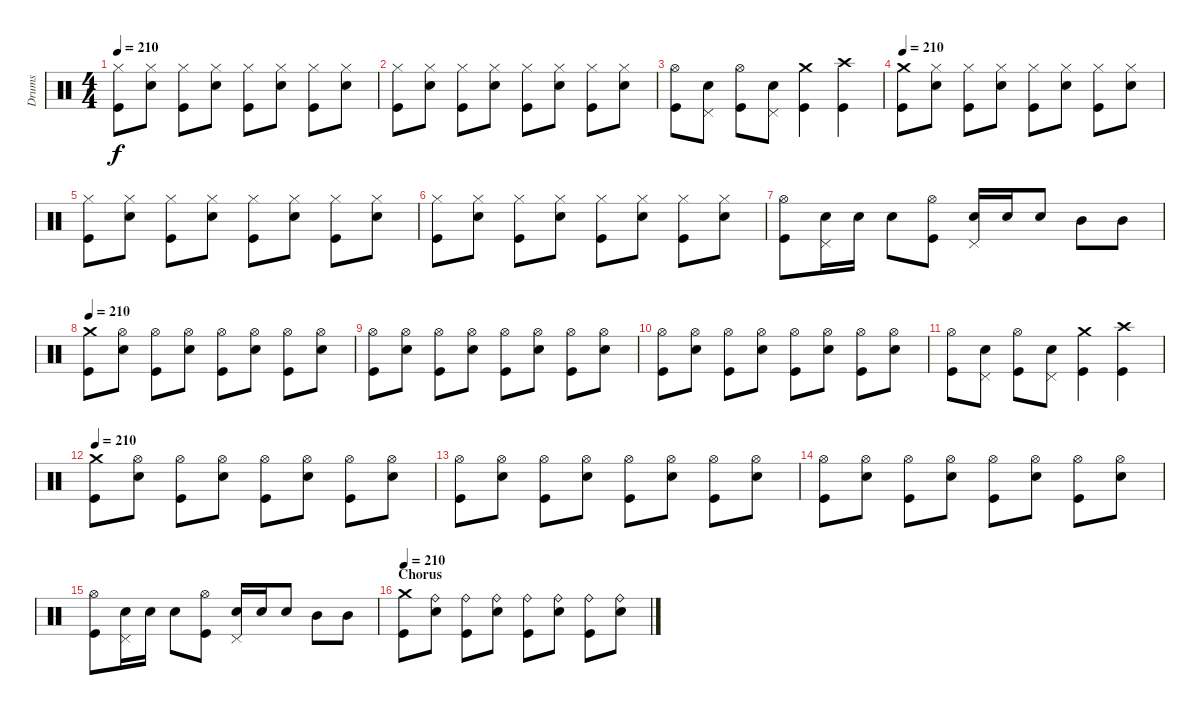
\track ("Drums" "Drums") {instrument percussion}
\staff {score}
\articulation defaults
\ts (4 4)
\tempo 210
\clef neutral
\ks c
("Hi-Hat (closed)" "Kick (hit)").8{dy f} ("Hi-Hat (closed)" "Electric Snare (hit)").8 ("Hi-Hat (closed)" "Kick (hit)").8 ("Hi-Hat (closed)" "Electric Snare (hit)").8 ("Hi-Hat (closed)" "Kick (hit)").8 ("Hi-Hat (closed)" "Electric Snare (hit)").8 ("Hi-Hat (closed)" "Kick (hit)").8 ("Hi-Hat (closed)" "Electric Snare (hit)").8 |
("Hi-Hat (closed)" "Kick (hit)").8 ("Hi-Hat (closed)" "Electric Snare (hit)").8 ("Hi-Hat (closed)" "Kick (hit)").8 ("Hi-Hat (closed)" "Electric Snare (hit)").8 ("Hi-Hat (closed)" "Kick (hit)").8 ("Hi-Hat (closed)" "Electric Snare (hit)").8 ("Hi-Hat (closed)" "Kick (hit)").8 ("Hi-Hat (closed)" "Electric Snare (hit)").8 |
("Hi-Hat (open)" "Kick (hit)").8 ("Pedal Hi-Hat (hit)" "Electric Snare (hit)").8 ("Hi-Hat (open)" "Kick (hit)").8 ("Pedal Hi-Hat (hit)" "Electric Snare (hit)").8 ("Crash medium (hit)" "Kick (hit)").4 ("Crash high (hit)" "Kick (hit)").4 |
\tempo 210
("Crash medium (hit)" "Kick (hit)").8 ("Hi-Hat (closed)" "Electric Snare (hit)").8 ("Hi-Hat (closed)" "Kick (hit)").8 ("Hi-Hat (closed)" "Electric Snare (hit)").8 ("Hi-Hat (closed)" "Kick (hit)").8 ("Hi-Hat (closed)" "Electric Snare (hit)").8 ("Hi-Hat (closed)" "Kick (hit)").8 ("Hi-Hat (closed)" "Electric Snare (hit)").8 |
("Hi-Hat (closed)" "Kick (hit)").8 ("Hi-Hat (closed)" "Electric Snare (hit)").8 ("Hi-Hat (closed)" "Kick (hit)").8 ("Hi-Hat (closed)" "Electric Snare (hit)").8 ("Hi-Hat (closed)" "Kick (hit)").8 ("Hi-Hat (closed)" "Electric Snare (hit)").8 ("Hi-Hat (closed)" "Kick (hit)").8 ("Hi-Hat (closed)" "Electric Snare (hit)").8 |
("Hi-Hat (closed)" "Kick (hit)").8 ("Hi-Hat (closed)" "Electric Snare (hit)").8 ("Hi-Hat (closed)" "Kick (hit)").8 ("Hi-Hat (closed)" "Electric Snare (hit)").8 ("Hi-Hat (closed)" "Kick (hit)").8 ("Hi-Hat (closed)" "Electric Snare (hit)").8 ("Hi-Hat (closed)" "Kick (hit)").8 ("Hi-Hat (closed)" "Electric Snare (hit)").8 |
("Hi-Hat (open)" "Kick (hit)").8 ("Pedal Hi-Hat (hit)" "Electric Snare (hit)").16 "Electric Snare (hit)".16 "Electric Snare (hit)".8 ("Hi-Hat (open)" "Kick (hit)").8 ("Pedal Hi-Hat (hit)" "Electric Snare (hit)").16 "Electric Snare (hit)".16 "Electric Snare (hit)".8 "Mid Tom (hit)".8 "Mid Tom (hit)".8 |
\tempo 210
("Crash medium (hit)" "Kick (hit)").8 ("Hi-Hat (open)" "Electric Snare (hit)").8 ("Hi-Hat (open)" "Kick (hit)").8 ("Hi-Hat (open)" "Electric Snare (hit)").8 ("Hi-Hat (open)" "Kick (hit)").8 ("Hi-Hat (open)" "Electric Snare (hit)").8 ("Hi-Hat (open)" "Kick (hit)").8 ("Hi-Hat (open)" "Electric Snare (hit)").8 |
("Hi-Hat (open)" "Kick (hit)").8 ("Hi-Hat (open)" "Electric Snare (hit)").8 ("Hi-Hat (open)" "Kick (hit)").8 ("Hi-Hat (open)" "Electric Snare (hit)").8 ("Hi-Hat (open)" "Kick (hit)").8 ("Hi-Hat (open)" "Electric Snare (hit)").8 ("Hi-Hat (open)" "Kick (hit)").8 ("Hi-Hat (open)" "Electric Snare (hit)").8 |
("Hi-Hat (open)" "Kick (hit)").8 ("Hi-Hat (open)" "Electric Snare (hit)").8 ("Hi-Hat (open)" "Kick (hit)").8 ("Hi-Hat (open)" "Electric Snare (hit)").8 ("Hi-Hat (open)" "Kick (hit)").8 ("Hi-Hat (open)" "Electric Snare (hit)").8 ("Hi-Hat (open)" "Kick (hit)").8 ("Hi-Hat (open)" "Electric Snare (hit)").8 |
("Hi-Hat (open)" "Kick (hit)").8 ("Pedal Hi-Hat (hit)" "Electric Snare (hit)").8 ("Hi-Hat (open)" "Kick (hit)").8 ("Pedal Hi-Hat (hit)" "Electric Snare (hit)").8 ("Crash medium (hit)" "Kick (hit)").4 ("Crash high (hit)" "Kick (hit)").4 |
\tempo 210
("Crash medium (hit)" "Kick (hit)").8 ("Hi-Hat (open)" "Electric Snare (hit)").8 ("Hi-Hat (open)" "Kick (hit)").8 ("Hi-Hat (open)" "Electric Snare (hit)").8 ("Hi-Hat (open)" "Kick (hit)").8 ("Hi-Hat (open)" "Electric Snare (hit)").8 ("Hi-Hat (open)" "Kick (hit)").8 ("Hi-Hat (open)" "Electric Snare (hit)").8 |
("Hi-Hat (open)" "Kick (hit)").8 ("Hi-Hat (open)" "Electric Snare (hit)").8 ("Hi-Hat (open)" "Kick (hit)").8 ("Hi-Hat (open)" "Electric Snare (hit)").8 ("Hi-Hat (open)" "Kick (hit)").8 ("Hi-Hat (open)" "Electric Snare (hit)").8 ("Hi-Hat (open)" "Kick (hit)").8 ("Hi-Hat (open)" "Electric Snare (hit)").8 |
("Hi-Hat (open)" "Kick (hit)").8 ("Hi-Hat (open)" "Electric Snare (hit)").8 ("Hi-Hat (open)" "Kick (hit)").8 ("Hi-Hat (open)" "Electric Snare (hit)").8 ("Hi-Hat (open)" "Kick (hit)").8 ("Hi-Hat (open)" "Electric Snare (hit)").8 ("Hi-Hat (open)" "Kick (hit)").8 ("Hi-Hat (open)" "Electric Snare (hit)").8 |
("Hi-Hat (open)" "Kick (hit)").8 ("Pedal Hi-Hat (hit)" "Electric Snare (hit)").16 "Electric Snare (hit)".16 "Electric Snare (hit)".8 ("Hi-Hat (open)" "Kick (hit)").8 ("Pedal Hi-Hat (hit)" "Electric Snare (hit)").16 "Electric Snare (hit)".16 "Electric Snare (hit)".8 "Mid Tom (hit)".8 "Mid Tom (hit)".8 |
\section ("" "Chorus")
\tempo 210
("Crash medium (hit)" "Kick (hit)").8 ("Ride (bell)" "Electric Snare (hit)").8 ("Ride (bell)" "Kick (hit)").8 ("Ride (bell)" "Electric Snare (hit)").8 ("Ride (bell)" "Kick (hit)").8 ("Ride (bell)" "Electric Snare (hit)").8 ("Ride (bell)" "Kick (hit)").8 ("Ride (bell)" "Electric Snare (hit)").8
